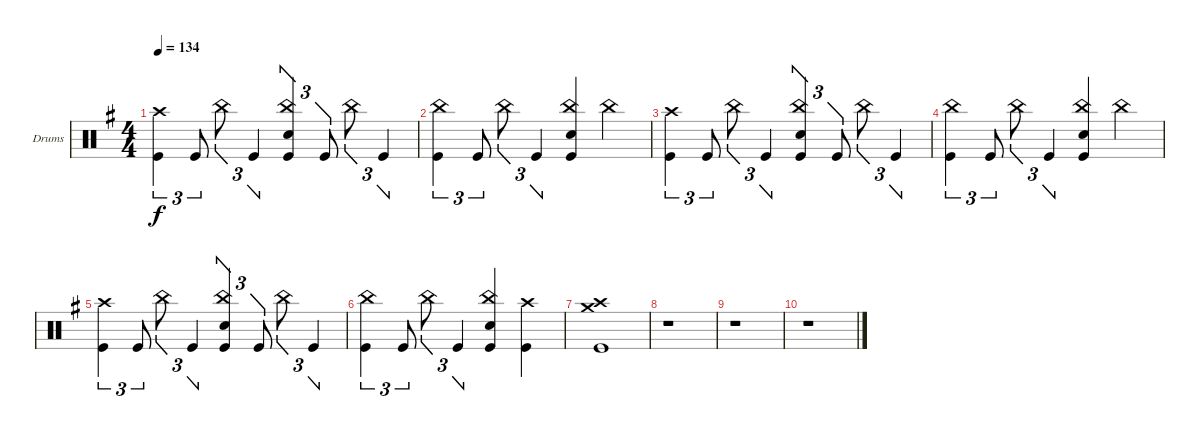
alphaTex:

\bracketExtendMode groupsimilarinstruments
\firstSystemTrackNameOrientation horizontal
\otherSystemsTrackNameOrientation horizontal
\track ("Drumkit" "Drums") {instrument percussion}
\staff {score}
\articulation defaults
\ts (4 4)
\tempo 134
\clef neutral
\scale
0.531073
\ks g
("Crash high (hit)" "Kick (hit)").4{tu (3 2) dy f} "Kick (hit)".8{tu (3 2)} "China (hit)".8{tu (3 2)} "Kick (hit)".4{tu (3 2)} ("China (hit)" "Snare (hit) 2" "Kick (hit)").4{tu (3 2)} "Kick (hit)".8{tu (3 2)} "China (hit)".8{tu (3 2)} "Kick (hit)".4{tu (3 2)} |
\scale
0.468927 ("China (hit)" "Kick (hit)").4{tu (3 2)} "Kick (hit)".8{tu (3 2)} "China (hit)".8{tu (3 2)} "Kick (hit)".4{tu (3 2)} ("China (hit)" "Snare (hit) 2" "Kick (hit)").4 "China (hit)".4 |
\scale
0.531073 ("Crash high (hit)" "Kick (hit)").4{tu (3 2)} "Kick (hit)".8{tu (3 2)} "China (hit)".8{tu (3 2)} "Kick (hit)".4{tu (3 2)} ("China (hit)" "Snare (hit) 2" "Kick (hit)").4{tu (3 2)} "Kick (hit)".8{tu (3 2)} "China (hit)".8{tu (3 2)} "Kick (hit)".4{tu (3 2)} |
\scale
0.468927 ("China (hit)" "Kick (hit)").4{tu (3 2)} "Kick (hit)".8{tu (3 2)} "China (hit)".8{tu (3 2)} "Kick (hit)".4{tu (3 2)} ("China (hit)" "Snare (hit) 2" "Kick (hit)").4 "China (hit)".4 |
\scale
0.531073 ("Crash high (hit)" "Kick (hit)").4{tu (3 2)} "Kick (hit)".8{tu (3 2)} "China (hit)".8{tu (3 2)} "Kick (hit)".4{tu (3 2)} ("China (hit)" "Snare (hit) 2" "Kick (hit)").4{tu (3 2)} "Kick (hit)".8{tu (3 2)} "China (hit)".8{tu (3 2)} "Kick (hit)".4{tu (3 2)} |
\scale
0.741071 ("China (hit)" "Kick (hit)").4{tu (3 2)} "Kick (hit)".8{tu (3 2)} "China (hit)".8{tu (3 2)} "Kick (hit)".4{tu (3 2)} ("China (hit)" "Snare (hit) 2" "Kick (hit)").4 ("Crash high (hit)" "Kick (hit)").4 |
\scale
0.258929 ("Crash high (hit)" "Crash medium (hit)" "Kick (hit)").1 |
\scale
0.5 r.1 |
\scale
0.5 r.1 |
r.1
